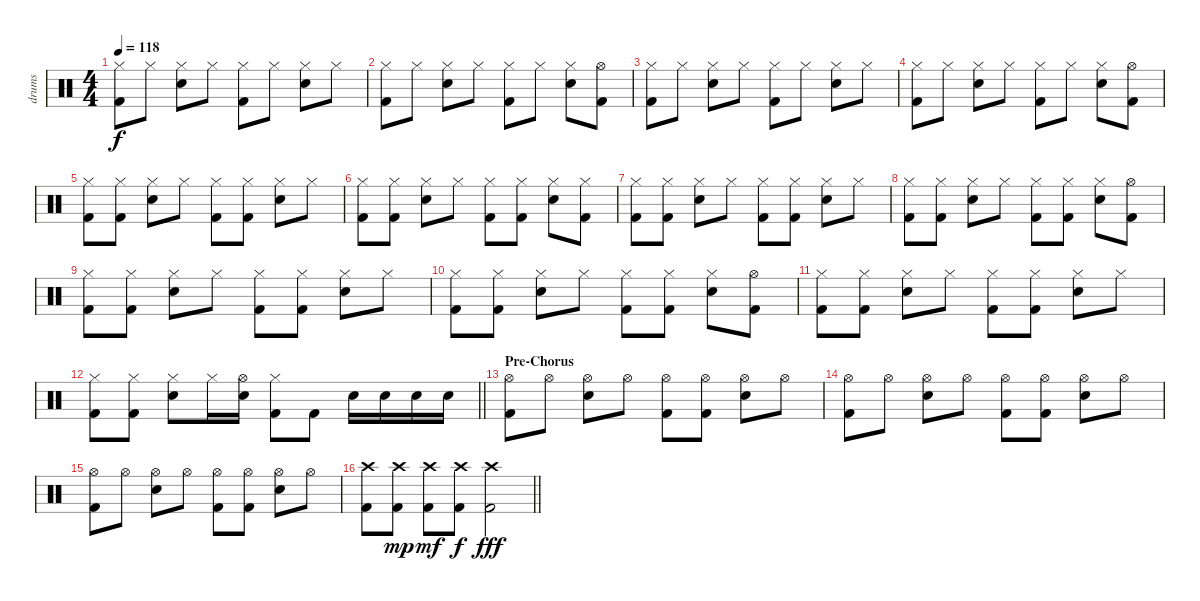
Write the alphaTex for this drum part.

\track ("drums" "drums") {instrument percussion}
\staff {score}
\articulation defaults
\ts (4 4)
\tempo 118
\clef neutral
\ks c
("Hi-Hat (closed)" "Kick (hit) 2").8{dy f} "Hi-Hat (closed)".8 ("Hi-Hat (closed)" "Electric Snare (hit)").8 "Hi-Hat (closed)".8 ("Hi-Hat (closed)" "Kick (hit) 2").8 "Hi-Hat (closed)".8 ("Hi-Hat (closed)" "Electric Snare (hit)").8 "Hi-Hat (closed)".8 |
("Hi-Hat (closed)" "Kick (hit) 2").8 "Hi-Hat (closed)".8 ("Hi-Hat (closed)" "Electric Snare (hit)").8 "Hi-Hat (closed)".8 ("Hi-Hat (closed)" "Kick (hit) 2").8 "Hi-Hat (closed)".8 ("Hi-Hat (closed)" "Electric Snare (hit)").8 ("Hi-Hat (open)" "Kick (hit) 2").8 |
("Hi-Hat (closed)" "Kick (hit) 2").8 "Hi-Hat (closed)".8 ("Hi-Hat (closed)" "Electric Snare (hit)").8 "Hi-Hat (closed)".8 ("Hi-Hat (closed)" "Kick (hit) 2").8 "Hi-Hat (closed)".8 ("Hi-Hat (closed)" "Electric Snare (hit)").8 "Hi-Hat (closed)".8 |
("Hi-Hat (closed)" "Kick (hit) 2").8 "Hi-Hat (closed)".8 ("Hi-Hat (closed)" "Electric Snare (hit)").8 "Hi-Hat (closed)".8 ("Hi-Hat (closed)" "Kick (hit) 2").8 "Hi-Hat (closed)".8 ("Hi-Hat (closed)" "Electric Snare (hit)").8 ("Hi-Hat (open)" "Kick (hit) 2").8 |
("Hi-Hat (closed)" "Kick (hit) 2").8 ("Hi-Hat (closed)" "Kick (hit) 2").8 ("Hi-Hat (closed)" "Electric Snare (hit)").8 "Hi-Hat (closed)".8 ("Hi-Hat (closed)" "Kick (hit) 2").8 ("Hi-Hat (closed)" "Kick (hit) 2").8 ("Hi-Hat (closed)" "Electric Snare (hit)").8 "Hi-Hat (closed)".8 |
("Hi-Hat (closed)" "Kick (hit) 2").8 ("Hi-Hat (closed)" "Kick (hit) 2").8 ("Hi-Hat (closed)" "Electric Snare (hit)").8 "Hi-Hat (closed)".8 ("Hi-Hat (closed)" "Kick (hit) 2").8 ("Hi-Hat (closed)" "Kick (hit) 2").8 ("Hi-Hat (closed)" "Electric Snare (hit)").8 ("Hi-Hat (closed)" "Kick (hit) 2").8 |
("Hi-Hat (closed)" "Kick (hit) 2").8 ("Hi-Hat (closed)" "Kick (hit) 2").8 ("Hi-Hat (closed)" "Electric Snare (hit)").8 "Hi-Hat (closed)".8 ("Hi-Hat (closed)" "Kick (hit) 2").8 ("Hi-Hat (closed)" "Kick (hit) 2").8 ("Hi-Hat (closed)" "Electric Snare (hit)").8 "Hi-Hat (closed)".8 |
("Hi-Hat (closed)" "Kick (hit) 2").8 ("Hi-Hat (closed)" "Kick (hit) 2").8 ("Hi-Hat (closed)" "Electric Snare (hit)").8 "Hi-Hat (closed)".8 ("Hi-Hat (closed)" "Kick (hit) 2").8 ("Hi-Hat (closed)" "Kick (hit) 2").8 ("Hi-Hat (closed)" "Electric Snare (hit)").8 ("Hi-Hat (open)" "Kick (hit) 2").8 |
("Hi-Hat (closed)" "Kick (hit) 2").8 ("Hi-Hat (closed)" "Kick (hit) 2").8 ("Hi-Hat (closed)" "Electric Snare (hit)").8 "Hi-Hat (closed)".8 ("Hi-Hat (closed)" "Kick (hit) 2").8 ("Hi-Hat (closed)" "Kick (hit) 2").8 ("Hi-Hat (closed)" "Electric Snare (hit)").8 "Hi-Hat (closed)".8 |
("Hi-Hat (closed)" "Kick (hit) 2").8 ("Hi-Hat (closed)" "Kick (hit) 2").8 ("Hi-Hat (closed)" "Electric Snare (hit)").8 "Hi-Hat (closed)".8 ("Hi-Hat (closed)" "Kick (hit) 2").8 ("Hi-Hat (closed)" "Kick (hit) 2").8 ("Hi-Hat (closed)" "Electric Snare (hit)").8 ("Hi-Hat (open)" "Kick (hit) 2").8 |
("Hi-Hat (closed)" "Kick (hit) 2").8 ("Hi-Hat (closed)" "Kick (hit) 2").8 ("Hi-Hat (closed)" "Electric Snare (hit)").8 "Hi-Hat (closed)".8 ("Hi-Hat (closed)" "Kick (hit) 2").8 ("Hi-Hat (closed)" "Kick (hit) 2").8 ("Hi-Hat (closed)" "Electric Snare (hit)").8 "Hi-Hat (closed)".8 |
\barLineRight lightlight
("Hi-Hat (closed)" "Kick (hit) 2").8 ("Hi-Hat (closed)" "Kick (hit) 2").8 ("Hi-Hat (closed)" "Electric Snare (hit)").8 "Hi-Hat (closed)".16 ("Hi-Hat (open)" "Electric Snare (hit)").16 ("Hi-Hat (closed)" "Kick (hit) 2").8 "Kick (hit) 2".8 "Electric Snare (hit)".16 "Electric Snare (hit)".16 "Electric Snare (hit)".16 "Electric Snare (hit)".16 |
\section ("" "Pre-Chorus")
("Hi-Hat (open)" "Kick (hit) 2").8 "Hi-Hat (open)".8 ("Hi-Hat (open)" "Electric Snare (hit)").8 "Hi-Hat (open)".8 ("Hi-Hat (open)" "Kick (hit) 2").8 ("Hi-Hat (open)" "Kick (hit) 2").8 ("Hi-Hat (open)" "Electric Snare (hit)").8 "Hi-Hat (open)".8 |
("Hi-Hat (open)" "Kick (hit) 2").8 "Hi-Hat (open)".8 ("Hi-Hat (open)" "Electric Snare (hit)").8 "Hi-Hat (open)".8 ("Hi-Hat (open)" "Kick (hit) 2").8 ("Hi-Hat (open)" "Kick (hit) 2").8 ("Hi-Hat (open)" "Electric Snare (hit)").8 "Hi-Hat (open)".8 |
("Hi-Hat (open)" "Kick (hit) 2").8 "Hi-Hat (open)".8 ("Hi-Hat (open)" "Electric Snare (hit)").8 "Hi-Hat (open)".8 ("Hi-Hat (open)" "Kick (hit) 2").8 ("Hi-Hat (open)" "Kick (hit) 2").8 ("Hi-Hat (open)" "Electric Snare (hit)").8 "Hi-Hat (open)".8 |
\barLineRight lightlight
("Crash high (hit)" "Kick (hit) 2").8 ("Crash high (hit)" "Kick (hit) 2").8{dy mp} ("Crash high (hit)" "Kick (hit) 2").8{dy mf} ("Crash high (hit)" "Kick (hit) 2").8{dy f} ("Crash high (hit)" "Kick (hit) 2").2{dy fff}
